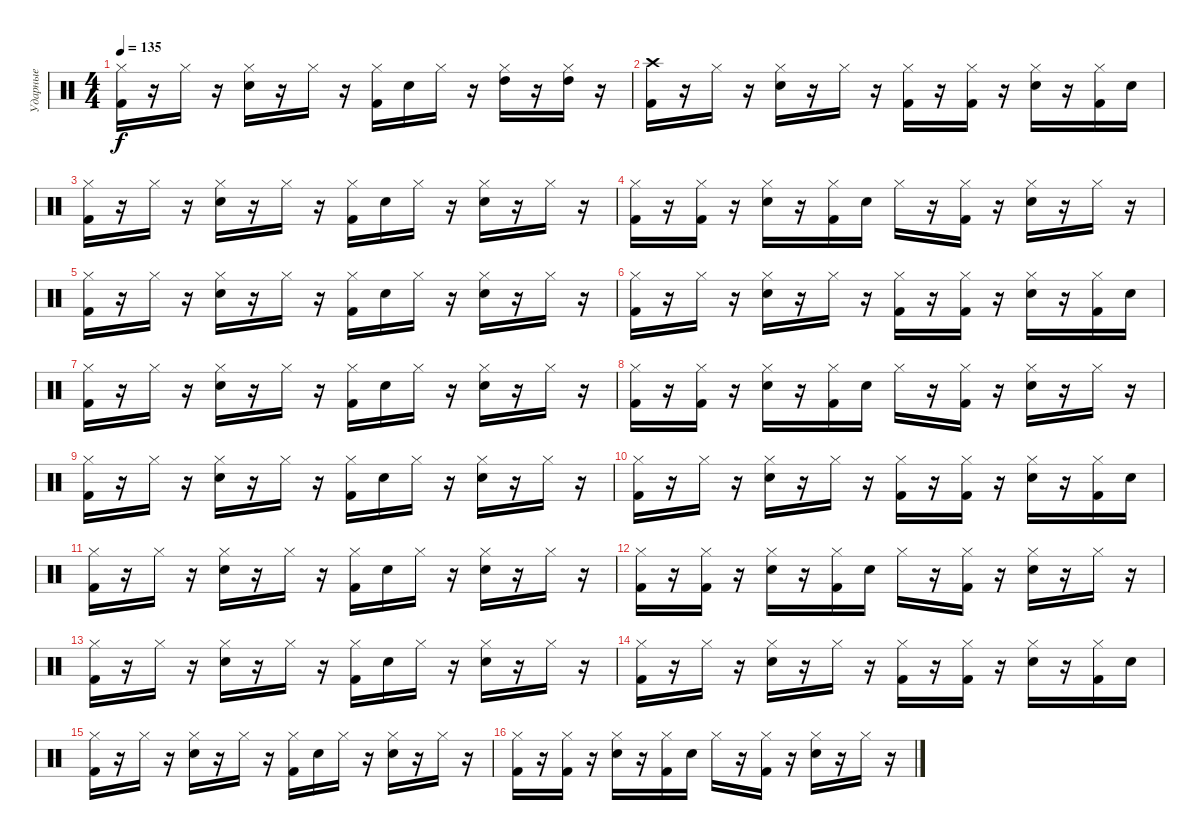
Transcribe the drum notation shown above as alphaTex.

\track ("Ударные" "Ударные") {instrument percussion}
\staff {score}
\articulation defaults
\ts (4 4)
\tempo 135
\clef neutral
\ks c
("Kick (hit) 2" "Hi-Hat (closed)").16{dy f} r.16 "Hi-Hat (closed)".16 r.16 ("Electric Snare (hit)" "Hi-Hat (closed)").16 r.16 "Hi-Hat (closed)".16 r.16 ("Kick (hit) 2" "Hi-Hat (closed)").16 "Electric Snare (hit)".16 "Hi-Hat (closed)".16 r.16 ("High Tom (hit)" "Hi-Hat (closed)").16 r.16 ("High Tom (hit)" "Hi-Hat (closed)").16 r.16 |
("Kick (hit) 2" "Crash high (hit)").16 r.16 "Hi-Hat (closed)".16 r.16 ("Electric Snare (hit)" "Hi-Hat (closed)").16 r.16 "Hi-Hat (closed)".16 r.16 ("Kick (hit) 2" "Hi-Hat (closed)").16 r.16 ("Kick (hit) 2" "Hi-Hat (closed)").16 r.16 ("Electric Snare (hit)" "Hi-Hat (closed)").16 r.16 ("Kick (hit) 2" "Hi-Hat (closed)").16 "Electric Snare (hit)".16 |
("Kick (hit) 2" "Hi-Hat (closed)").16 r.16 "Hi-Hat (closed)".16 r.16 ("Electric Snare (hit)" "Hi-Hat (closed)").16 r.16 "Hi-Hat (closed)".16 r.16 ("Kick (hit) 2" "Hi-Hat (closed)").16 "Electric Snare (hit)".16 "Hi-Hat (closed)".16 r.16 ("Electric Snare (hit)" "Hi-Hat (closed)").16 r.16 "Hi-Hat (closed)".16 r.16 |
("Kick (hit) 2" "Hi-Hat (closed)").16 r.16 ("Kick (hit) 2" "Hi-Hat (closed)").16 r.16 ("Electric Snare (hit)" "Hi-Hat (closed)").16 r.16 ("Kick (hit) 2" "Hi-Hat (closed)").16 "Electric Snare (hit)".16 "Hi-Hat (closed)".16 r.16 ("Kick (hit) 2" "Hi-Hat (closed)").16 r.16 ("Electric Snare (hit)" "Hi-Hat (closed)").16 r.16 "Hi-Hat (closed)".16 r.16 |
("Kick (hit) 2" "Hi-Hat (closed)").16 r.16 "Hi-Hat (closed)".16 r.16 ("Electric Snare (hit)" "Hi-Hat (closed)").16 r.16 "Hi-Hat (closed)".16 r.16 ("Kick (hit) 2" "Hi-Hat (closed)").16 "Electric Snare (hit)".16 "Hi-Hat (closed)".16 r.16 ("Electric Snare (hit)" "Hi-Hat (closed)").16 r.16 "Hi-Hat (closed)".16 r.16 |
("Kick (hit) 2" "Hi-Hat (closed)").16 r.16 "Hi-Hat (closed)".16 r.16 ("Electric Snare (hit)" "Hi-Hat (closed)").16 r.16 "Hi-Hat (closed)".16 r.16 ("Kick (hit) 2" "Hi-Hat (closed)").16 r.16 ("Kick (hit) 2" "Hi-Hat (closed)").16 r.16 ("Electric Snare (hit)" "Hi-Hat (closed)").16 r.16 ("Kick (hit) 2" "Hi-Hat (closed)").16 "Electric Snare (hit)".16 |
("Kick (hit) 2" "Hi-Hat (closed)").16 r.16 "Hi-Hat (closed)".16 r.16 ("Electric Snare (hit)" "Hi-Hat (closed)").16 r.16 "Hi-Hat (closed)".16 r.16 ("Kick (hit) 2" "Hi-Hat (closed)").16 "Electric Snare (hit)".16 "Hi-Hat (closed)".16 r.16 ("Electric Snare (hit)" "Hi-Hat (closed)").16 r.16 "Hi-Hat (closed)".16 r.16 |
("Kick (hit) 2" "Hi-Hat (closed)").16 r.16 ("Kick (hit) 2" "Hi-Hat (closed)").16 r.16 ("Electric Snare (hit)" "Hi-Hat (closed)").16 r.16 ("Kick (hit) 2" "Hi-Hat (closed)").16 "Electric Snare (hit)".16 "Hi-Hat (closed)".16 r.16 ("Kick (hit) 2" "Hi-Hat (closed)").16 r.16 ("Electric Snare (hit)" "Hi-Hat (closed)").16 r.16 "Hi-Hat (closed)".16 r.16 |
("Kick (hit) 2" "Hi-Hat (closed)").16 r.16 "Hi-Hat (closed)".16 r.16 ("Electric Snare (hit)" "Hi-Hat (closed)").16 r.16 "Hi-Hat (closed)".16 r.16 ("Kick (hit) 2" "Hi-Hat (closed)").16 "Electric Snare (hit)".16 "Hi-Hat (closed)".16 r.16 ("Electric Snare (hit)" "Hi-Hat (closed)").16 r.16 "Hi-Hat (closed)".16 r.16 |
("Kick (hit) 2" "Hi-Hat (closed)").16 r.16 "Hi-Hat (closed)".16 r.16 ("Electric Snare (hit)" "Hi-Hat (closed)").16 r.16 "Hi-Hat (closed)".16 r.16 ("Kick (hit) 2" "Hi-Hat (closed)").16 r.16 ("Kick (hit) 2" "Hi-Hat (closed)").16 r.16 ("Electric Snare (hit)" "Hi-Hat (closed)").16 r.16 ("Kick (hit) 2" "Hi-Hat (closed)").16 "Electric Snare (hit)".16 |
("Kick (hit) 2" "Hi-Hat (closed)").16 r.16 "Hi-Hat (closed)".16 r.16 ("Electric Snare (hit)" "Hi-Hat (closed)").16 r.16 "Hi-Hat (closed)".16 r.16 ("Kick (hit) 2" "Hi-Hat (closed)").16 "Electric Snare (hit)".16 "Hi-Hat (closed)".16 r.16 ("Electric Snare (hit)" "Hi-Hat (closed)").16 r.16 "Hi-Hat (closed)".16 r.16 |
("Kick (hit) 2" "Hi-Hat (closed)").16 r.16 ("Kick (hit) 2" "Hi-Hat (closed)").16 r.16 ("Electric Snare (hit)" "Hi-Hat (closed)").16 r.16 ("Kick (hit) 2" "Hi-Hat (closed)").16 "Electric Snare (hit)".16 "Hi-Hat (closed)".16 r.16 ("Kick (hit) 2" "Hi-Hat (closed)").16 r.16 ("Electric Snare (hit)" "Hi-Hat (closed)").16 r.16 "Hi-Hat (closed)".16 r.16 |
("Kick (hit) 2" "Hi-Hat (closed)").16 r.16 "Hi-Hat (closed)".16 r.16 ("Electric Snare (hit)" "Hi-Hat (closed)").16 r.16 "Hi-Hat (closed)".16 r.16 ("Kick (hit) 2" "Hi-Hat (closed)").16 "Electric Snare (hit)".16 "Hi-Hat (closed)".16 r.16 ("Electric Snare (hit)" "Hi-Hat (closed)").16 r.16 "Hi-Hat (closed)".16 r.16 |
("Kick (hit) 2" "Hi-Hat (closed)").16 r.16 "Hi-Hat (closed)".16 r.16 ("Electric Snare (hit)" "Hi-Hat (closed)").16 r.16 "Hi-Hat (closed)".16 r.16 ("Kick (hit) 2" "Hi-Hat (closed)").16 r.16 ("Kick (hit) 2" "Hi-Hat (closed)").16 r.16 ("Electric Snare (hit)" "Hi-Hat (closed)").16 r.16 ("Kick (hit) 2" "Hi-Hat (closed)").16 "Electric Snare (hit)".16 |
("Kick (hit) 2" "Hi-Hat (closed)").16 r.16 "Hi-Hat (closed)".16 r.16 ("Electric Snare (hit)" "Hi-Hat (closed)").16 r.16 "Hi-Hat (closed)".16 r.16 ("Kick (hit) 2" "Hi-Hat (closed)").16 "Electric Snare (hit)".16 "Hi-Hat (closed)".16 r.16 ("Electric Snare (hit)" "Hi-Hat (closed)").16 r.16 "Hi-Hat (closed)".16 r.16 |
("Kick (hit) 2" "Hi-Hat (closed)").16 r.16 ("Kick (hit) 2" "Hi-Hat (closed)").16 r.16 ("Electric Snare (hit)" "Hi-Hat (closed)").16 r.16 ("Kick (hit) 2" "Hi-Hat (closed)").16 "Electric Snare (hit)".16 "Hi-Hat (closed)".16 r.16 ("Kick (hit) 2" "Hi-Hat (closed)").16 r.16 ("Electric Snare (hit)" "Hi-Hat (closed)").16 r.16 "Hi-Hat (closed)".16 r.16
